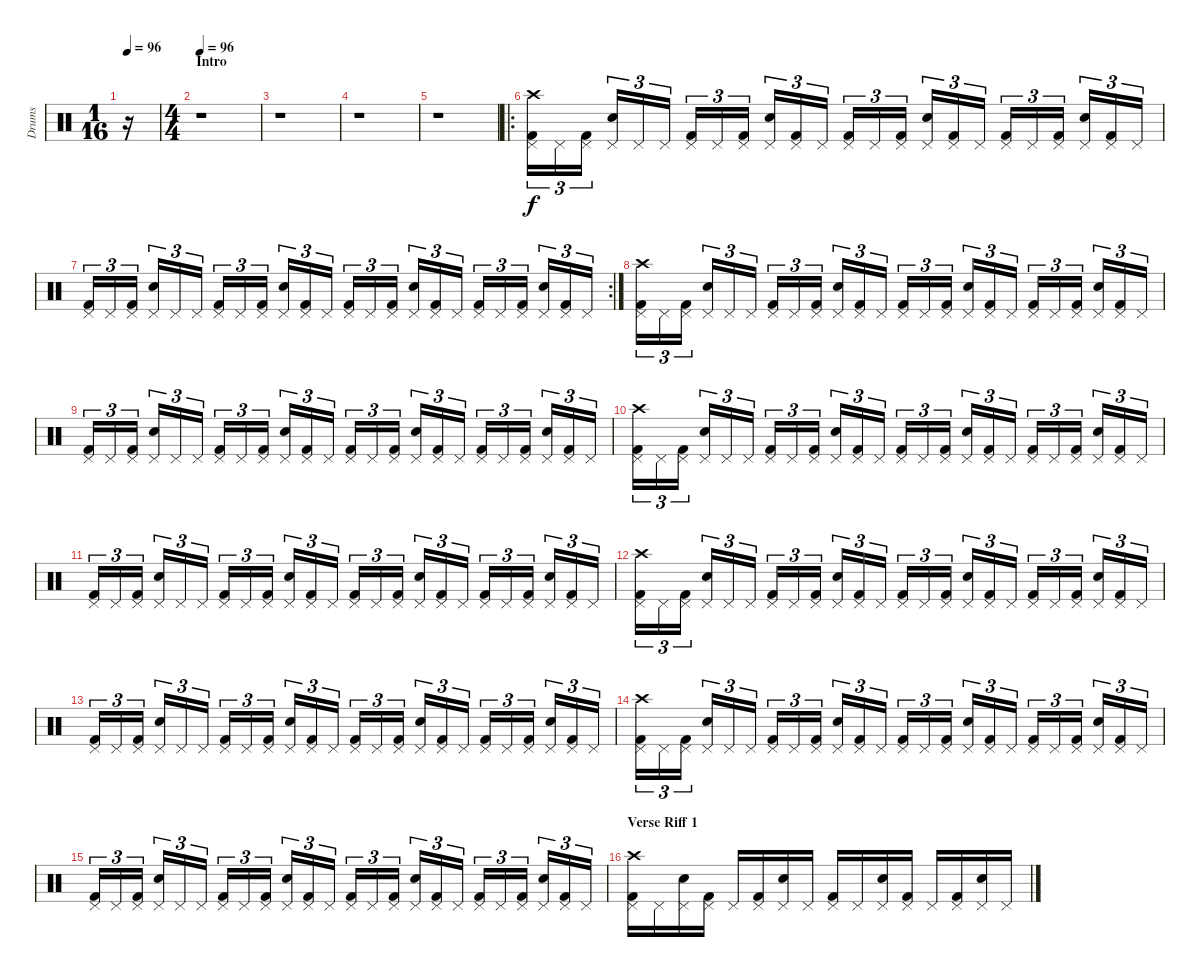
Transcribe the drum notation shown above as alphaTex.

\track ("Drums" "Drums") {instrument percussion}
\staff {score}
\articulation defaults
\ts (1 16)
\tempo 96
\clef neutral
\ks c
r.16{dy f} |
\ts (4 4)
\section ("" "Intro")
\tempo 96
r.1 |
r.1 |
r.1 |
r.1 |
\ro
("Kick (hit) 2" "Pedal Hi-Hat (hit)" "Crash high (hit)").16{tu (3 2)} "Pedal Hi-Hat (hit)".16{tu (3 2)} ("Kick (hit) 2" "Pedal Hi-Hat (hit)").16{tu (3 2)} ("Snare (hit) 2" "Pedal Hi-Hat (hit)").16{tu (3 2)} "Pedal Hi-Hat (hit)".16{tu (3 2)} "Pedal Hi-Hat (hit)".16{tu (3 2)} ("Kick (hit) 2" "Pedal Hi-Hat (hit)").16{tu (3 2)} "Pedal Hi-Hat (hit)".16{tu (3 2)} ("Kick (hit) 2" "Pedal Hi-Hat (hit)").16{tu (3 2)} ("Snare (hit) 2" "Pedal Hi-Hat (hit)").16{tu (3 2)} ("Kick (hit) 2" "Pedal Hi-Hat (hit)").16{tu (3 2)} "Pedal Hi-Hat (hit)".16{tu (3 2)} ("Kick (hit) 2" "Pedal Hi-Hat (hit)").16{tu (3 2)} "Pedal Hi-Hat (hit)".16{tu (3 2)} ("Kick (hit) 2" "Pedal Hi-Hat (hit)").16{tu (3 2)} ("Snare (hit) 2" "Pedal Hi-Hat (hit)").16{tu (3 2)} ("Kick (hit) 2" "Pedal Hi-Hat (hit)").16{tu (3 2)} "Pedal Hi-Hat (hit)".16{tu (3 2)} ("Kick (hit) 2" "Pedal Hi-Hat (hit)").16{tu (3 2)} "Pedal Hi-Hat (hit)".16{tu (3 2)} ("Kick (hit) 2" "Pedal Hi-Hat (hit)").16{tu (3 2)} ("Snare (hit) 2" "Pedal Hi-Hat (hit)").16{tu (3 2)} ("Kick (hit) 2" "Pedal Hi-Hat (hit)").16{tu (3 2)} "Pedal Hi-Hat (hit)".16{tu (3 2)} |
\rc 2
("Kick (hit) 2" "Pedal Hi-Hat (hit)").16{tu (3 2)} "Pedal Hi-Hat (hit)".16{tu (3 2)} ("Kick (hit) 2" "Pedal Hi-Hat (hit)").16{tu (3 2)} ("Snare (hit) 2" "Pedal Hi-Hat (hit)").16{tu (3 2)} "Pedal Hi-Hat (hit)".16{tu (3 2)} "Pedal Hi-Hat (hit)".16{tu (3 2)} ("Kick (hit) 2" "Pedal Hi-Hat (hit)").16{tu (3 2)} "Pedal Hi-Hat (hit)".16{tu (3 2)} ("Kick (hit) 2" "Pedal Hi-Hat (hit)").16{tu (3 2)} ("Snare (hit) 2" "Pedal Hi-Hat (hit)").16{tu (3 2)} ("Kick (hit) 2" "Pedal Hi-Hat (hit)").16{tu (3 2)} "Pedal Hi-Hat (hit)".16{tu (3 2)} ("Kick (hit) 2" "Pedal Hi-Hat (hit)").16{tu (3 2)} "Pedal Hi-Hat (hit)".16{tu (3 2)} ("Kick (hit) 2" "Pedal Hi-Hat (hit)").16{tu (3 2)} ("Snare (hit) 2" "Pedal Hi-Hat (hit)").16{tu (3 2)} ("Kick (hit) 2" "Pedal Hi-Hat (hit)").16{tu (3 2)} "Pedal Hi-Hat (hit)".16{tu (3 2)} ("Kick (hit) 2" "Pedal Hi-Hat (hit)").16{tu (3 2)} "Pedal Hi-Hat (hit)".16{tu (3 2)} ("Kick (hit) 2" "Pedal Hi-Hat (hit)").16{tu (3 2)} ("Snare (hit) 2" "Pedal Hi-Hat (hit)").16{tu (3 2)} ("Kick (hit) 2" "Pedal Hi-Hat (hit)").16{tu (3 2)} "Pedal Hi-Hat (hit)".16{tu (3 2)} |
("Kick (hit) 2" "Pedal Hi-Hat (hit)" "Crash high (hit)").16{tu (3 2)} "Pedal Hi-Hat (hit)".16{tu (3 2)} ("Kick (hit) 2" "Pedal Hi-Hat (hit)").16{tu (3 2)} ("Snare (hit) 2" "Pedal Hi-Hat (hit)").16{tu (3 2)} "Pedal Hi-Hat (hit)".16{tu (3 2)} "Pedal Hi-Hat (hit)".16{tu (3 2)} ("Kick (hit) 2" "Pedal Hi-Hat (hit)").16{tu (3 2)} "Pedal Hi-Hat (hit)".16{tu (3 2)} ("Kick (hit) 2" "Pedal Hi-Hat (hit)").16{tu (3 2)} ("Snare (hit) 2" "Pedal Hi-Hat (hit)").16{tu (3 2)} ("Kick (hit) 2" "Pedal Hi-Hat (hit)").16{tu (3 2)} "Pedal Hi-Hat (hit)".16{tu (3 2)} ("Kick (hit) 2" "Pedal Hi-Hat (hit)").16{tu (3 2)} "Pedal Hi-Hat (hit)".16{tu (3 2)} ("Kick (hit) 2" "Pedal Hi-Hat (hit)").16{tu (3 2)} ("Snare (hit) 2" "Pedal Hi-Hat (hit)").16{tu (3 2)} ("Kick (hit) 2" "Pedal Hi-Hat (hit)").16{tu (3 2)} "Pedal Hi-Hat (hit)".16{tu (3 2)} ("Kick (hit) 2" "Pedal Hi-Hat (hit)").16{tu (3 2)} "Pedal Hi-Hat (hit)".16{tu (3 2)} ("Kick (hit) 2" "Pedal Hi-Hat (hit)").16{tu (3 2)} ("Snare (hit) 2" "Pedal Hi-Hat (hit)").16{tu (3 2)} ("Kick (hit) 2" "Pedal Hi-Hat (hit)").16{tu (3 2)} "Pedal Hi-Hat (hit)".16{tu (3 2)} |
("Kick (hit) 2" "Pedal Hi-Hat (hit)").16{tu (3 2)} "Pedal Hi-Hat (hit)".16{tu (3 2)} ("Kick (hit) 2" "Pedal Hi-Hat (hit)").16{tu (3 2)} ("Snare (hit) 2" "Pedal Hi-Hat (hit)").16{tu (3 2)} "Pedal Hi-Hat (hit)".16{tu (3 2)} "Pedal Hi-Hat (hit)".16{tu (3 2)} ("Kick (hit) 2" "Pedal Hi-Hat (hit)").16{tu (3 2)} "Pedal Hi-Hat (hit)".16{tu (3 2)} ("Kick (hit) 2" "Pedal Hi-Hat (hit)").16{tu (3 2)} ("Snare (hit) 2" "Pedal Hi-Hat (hit)").16{tu (3 2)} ("Kick (hit) 2" "Pedal Hi-Hat (hit)").16{tu (3 2)} "Pedal Hi-Hat (hit)".16{tu (3 2)} ("Kick (hit) 2" "Pedal Hi-Hat (hit)").16{tu (3 2)} "Pedal Hi-Hat (hit)".16{tu (3 2)} ("Kick (hit) 2" "Pedal Hi-Hat (hit)").16{tu (3 2)} ("Snare (hit) 2" "Pedal Hi-Hat (hit)").16{tu (3 2)} ("Kick (hit) 2" "Pedal Hi-Hat (hit)").16{tu (3 2)} "Pedal Hi-Hat (hit)".16{tu (3 2)} ("Kick (hit) 2" "Pedal Hi-Hat (hit)").16{tu (3 2)} "Pedal Hi-Hat (hit)".16{tu (3 2)} ("Kick (hit) 2" "Pedal Hi-Hat (hit)").16{tu (3 2)} ("Snare (hit) 2" "Pedal Hi-Hat (hit)").16{tu (3 2)} ("Kick (hit) 2" "Pedal Hi-Hat (hit)").16{tu (3 2)} "Pedal Hi-Hat (hit)".16{tu (3 2)} |
("Kick (hit) 2" "Pedal Hi-Hat (hit)" "Crash high (hit)").16{tu (3 2)} "Pedal Hi-Hat (hit)".16{tu (3 2)} ("Kick (hit) 2" "Pedal Hi-Hat (hit)").16{tu (3 2)} ("Snare (hit) 2" "Pedal Hi-Hat (hit)").16{tu (3 2)} "Pedal Hi-Hat (hit)".16{tu (3 2)} "Pedal Hi-Hat (hit)".16{tu (3 2)} ("Kick (hit) 2" "Pedal Hi-Hat (hit)").16{tu (3 2)} "Pedal Hi-Hat (hit)".16{tu (3 2)} ("Kick (hit) 2" "Pedal Hi-Hat (hit)").16{tu (3 2)} ("Snare (hit) 2" "Pedal Hi-Hat (hit)").16{tu (3 2)} ("Kick (hit) 2" "Pedal Hi-Hat (hit)").16{tu (3 2)} "Pedal Hi-Hat (hit)".16{tu (3 2)} ("Kick (hit) 2" "Pedal Hi-Hat (hit)").16{tu (3 2)} "Pedal Hi-Hat (hit)".16{tu (3 2)} ("Kick (hit) 2" "Pedal Hi-Hat (hit)").16{tu (3 2)} ("Snare (hit) 2" "Pedal Hi-Hat (hit)").16{tu (3 2)} ("Kick (hit) 2" "Pedal Hi-Hat (hit)").16{tu (3 2)} "Pedal Hi-Hat (hit)".16{tu (3 2)} ("Kick (hit) 2" "Pedal Hi-Hat (hit)").16{tu (3 2)} "Pedal Hi-Hat (hit)".16{tu (3 2)} ("Kick (hit) 2" "Pedal Hi-Hat (hit)").16{tu (3 2)} ("Snare (hit) 2" "Pedal Hi-Hat (hit)").16{tu (3 2)} ("Kick (hit) 2" "Pedal Hi-Hat (hit)").16{tu (3 2)} "Pedal Hi-Hat (hit)".16{tu (3 2)} |
("Kick (hit) 2" "Pedal Hi-Hat (hit)").16{tu (3 2)} "Pedal Hi-Hat (hit)".16{tu (3 2)} ("Kick (hit) 2" "Pedal Hi-Hat (hit)").16{tu (3 2)} ("Snare (hit) 2" "Pedal Hi-Hat (hit)").16{tu (3 2)} "Pedal Hi-Hat (hit)".16{tu (3 2)} "Pedal Hi-Hat (hit)".16{tu (3 2)} ("Kick (hit) 2" "Pedal Hi-Hat (hit)").16{tu (3 2)} "Pedal Hi-Hat (hit)".16{tu (3 2)} ("Kick (hit) 2" "Pedal Hi-Hat (hit)").16{tu (3 2)} ("Snare (hit) 2" "Pedal Hi-Hat (hit)").16{tu (3 2)} ("Kick (hit) 2" "Pedal Hi-Hat (hit)").16{tu (3 2)} "Pedal Hi-Hat (hit)".16{tu (3 2)} ("Kick (hit) 2" "Pedal Hi-Hat (hit)").16{tu (3 2)} "Pedal Hi-Hat (hit)".16{tu (3 2)} ("Kick (hit) 2" "Pedal Hi-Hat (hit)").16{tu (3 2)} ("Snare (hit) 2" "Pedal Hi-Hat (hit)").16{tu (3 2)} ("Kick (hit) 2" "Pedal Hi-Hat (hit)").16{tu (3 2)} "Pedal Hi-Hat (hit)".16{tu (3 2)} ("Kick (hit) 2" "Pedal Hi-Hat (hit)").16{tu (3 2)} "Pedal Hi-Hat (hit)".16{tu (3 2)} ("Kick (hit) 2" "Pedal Hi-Hat (hit)").16{tu (3 2)} ("Snare (hit) 2" "Pedal Hi-Hat (hit)").16{tu (3 2)} ("Kick (hit) 2" "Pedal Hi-Hat (hit)").16{tu (3 2)} "Pedal Hi-Hat (hit)".16{tu (3 2)} |
("Kick (hit) 2" "Pedal Hi-Hat (hit)" "Crash high (hit)").16{tu (3 2)} "Pedal Hi-Hat (hit)".16{tu (3 2)} ("Kick (hit) 2" "Pedal Hi-Hat (hit)").16{tu (3 2)} ("Snare (hit) 2" "Pedal Hi-Hat (hit)").16{tu (3 2)} "Pedal Hi-Hat (hit)".16{tu (3 2)} "Pedal Hi-Hat (hit)".16{tu (3 2)} ("Kick (hit) 2" "Pedal Hi-Hat (hit)").16{tu (3 2)} "Pedal Hi-Hat (hit)".16{tu (3 2)} ("Kick (hit) 2" "Pedal Hi-Hat (hit)").16{tu (3 2)} ("Snare (hit) 2" "Pedal Hi-Hat (hit)").16{tu (3 2)} ("Kick (hit) 2" "Pedal Hi-Hat (hit)").16{tu (3 2)} "Pedal Hi-Hat (hit)".16{tu (3 2)} ("Kick (hit) 2" "Pedal Hi-Hat (hit)").16{tu (3 2)} "Pedal Hi-Hat (hit)".16{tu (3 2)} ("Kick (hit) 2" "Pedal Hi-Hat (hit)").16{tu (3 2)} ("Snare (hit) 2" "Pedal Hi-Hat (hit)").16{tu (3 2)} ("Kick (hit) 2" "Pedal Hi-Hat (hit)").16{tu (3 2)} "Pedal Hi-Hat (hit)".16{tu (3 2)} ("Kick (hit) 2" "Pedal Hi-Hat (hit)").16{tu (3 2)} "Pedal Hi-Hat (hit)".16{tu (3 2)} ("Kick (hit) 2" "Pedal Hi-Hat (hit)").16{tu (3 2)} ("Snare (hit) 2" "Pedal Hi-Hat (hit)").16{tu (3 2)} ("Kick (hit) 2" "Pedal Hi-Hat (hit)").16{tu (3 2)} "Pedal Hi-Hat (hit)".16{tu (3 2)} |
("Kick (hit) 2" "Pedal Hi-Hat (hit)").16{tu (3 2)} "Pedal Hi-Hat (hit)".16{tu (3 2)} ("Kick (hit) 2" "Pedal Hi-Hat (hit)").16{tu (3 2)} ("Snare (hit) 2" "Pedal Hi-Hat (hit)").16{tu (3 2)} "Pedal Hi-Hat (hit)".16{tu (3 2)} "Pedal Hi-Hat (hit)".16{tu (3 2)} ("Kick (hit) 2" "Pedal Hi-Hat (hit)").16{tu (3 2)} "Pedal Hi-Hat (hit)".16{tu (3 2)} ("Kick (hit) 2" "Pedal Hi-Hat (hit)").16{tu (3 2)} ("Snare (hit) 2" "Pedal Hi-Hat (hit)").16{tu (3 2)} ("Kick (hit) 2" "Pedal Hi-Hat (hit)").16{tu (3 2)} "Pedal Hi-Hat (hit)".16{tu (3 2)} ("Kick (hit) 2" "Pedal Hi-Hat (hit)").16{tu (3 2)} "Pedal Hi-Hat (hit)".16{tu (3 2)} ("Kick (hit) 2" "Pedal Hi-Hat (hit)").16{tu (3 2)} ("Snare (hit) 2" "Pedal Hi-Hat (hit)").16{tu (3 2)} ("Kick (hit) 2" "Pedal Hi-Hat (hit)").16{tu (3 2)} "Pedal Hi-Hat (hit)".16{tu (3 2)} ("Kick (hit) 2" "Pedal Hi-Hat (hit)").16{tu (3 2)} "Pedal Hi-Hat (hit)".16{tu (3 2)} ("Kick (hit) 2" "Pedal Hi-Hat (hit)").16{tu (3 2)} ("Snare (hit) 2" "Pedal Hi-Hat (hit)").16{tu (3 2)} ("Kick (hit) 2" "Pedal Hi-Hat (hit)").16{tu (3 2)} "Pedal Hi-Hat (hit)".16{tu (3 2)} |
("Kick (hit) 2" "Pedal Hi-Hat (hit)" "Crash high (hit)").16{tu (3 2)} "Pedal Hi-Hat (hit)".16{tu (3 2)} ("Kick (hit) 2" "Pedal Hi-Hat (hit)").16{tu (3 2)} ("Snare (hit) 2" "Pedal Hi-Hat (hit)").16{tu (3 2)} "Pedal Hi-Hat (hit)".16{tu (3 2)} "Pedal Hi-Hat (hit)".16{tu (3 2)} ("Kick (hit) 2" "Pedal Hi-Hat (hit)").16{tu (3 2)} "Pedal Hi-Hat (hit)".16{tu (3 2)} ("Kick (hit) 2" "Pedal Hi-Hat (hit)").16{tu (3 2)} ("Snare (hit) 2" "Pedal Hi-Hat (hit)").16{tu (3 2)} ("Kick (hit) 2" "Pedal Hi-Hat (hit)").16{tu (3 2)} "Pedal Hi-Hat (hit)".16{tu (3 2)} ("Kick (hit) 2" "Pedal Hi-Hat (hit)").16{tu (3 2)} "Pedal Hi-Hat (hit)".16{tu (3 2)} ("Kick (hit) 2" "Pedal Hi-Hat (hit)").16{tu (3 2)} ("Snare (hit) 2" "Pedal Hi-Hat (hit)").16{tu (3 2)} ("Kick (hit) 2" "Pedal Hi-Hat (hit)").16{tu (3 2)} "Pedal Hi-Hat (hit)".16{tu (3 2)} ("Kick (hit) 2" "Pedal Hi-Hat (hit)").16{tu (3 2)} "Pedal Hi-Hat (hit)".16{tu (3 2)} ("Kick (hit) 2" "Pedal Hi-Hat (hit)").16{tu (3 2)} ("Snare (hit) 2" "Pedal Hi-Hat (hit)").16{tu (3 2)} ("Kick (hit) 2" "Pedal Hi-Hat (hit)").16{tu (3 2)} "Pedal Hi-Hat (hit)".16{tu (3 2)} |
("Kick (hit) 2" "Pedal Hi-Hat (hit)").16{tu (3 2)} "Pedal Hi-Hat (hit)".16{tu (3 2)} ("Kick (hit) 2" "Pedal Hi-Hat (hit)").16{tu (3 2)} ("Snare (hit) 2" "Pedal Hi-Hat (hit)").16{tu (3 2)} "Pedal Hi-Hat (hit)".16{tu (3 2)} "Pedal Hi-Hat (hit)".16{tu (3 2)} ("Kick (hit) 2" "Pedal Hi-Hat (hit)").16{tu (3 2)} "Pedal Hi-Hat (hit)".16{tu (3 2)} ("Kick (hit) 2" "Pedal Hi-Hat (hit)").16{tu (3 2)} ("Snare (hit) 2" "Pedal Hi-Hat (hit)").16{tu (3 2)} ("Kick (hit) 2" "Pedal Hi-Hat (hit)").16{tu (3 2)} "Pedal Hi-Hat (hit)".16{tu (3 2)} ("Kick (hit) 2" "Pedal Hi-Hat (hit)").16{tu (3 2)} "Pedal Hi-Hat (hit)".16{tu (3 2)} ("Kick (hit) 2" "Pedal Hi-Hat (hit)").16{tu (3 2)} ("Snare (hit) 2" "Pedal Hi-Hat (hit)").16{tu (3 2)} ("Kick (hit) 2" "Pedal Hi-Hat (hit)").16{tu (3 2)} "Pedal Hi-Hat (hit)".16{tu (3 2)} ("Kick (hit) 2" "Pedal Hi-Hat (hit)").16{tu (3 2)} "Pedal Hi-Hat (hit)".16{tu (3 2)} ("Kick (hit) 2" "Pedal Hi-Hat (hit)").16{tu (3 2)} ("Snare (hit) 2" "Pedal Hi-Hat (hit)").16{tu (3 2)} ("Kick (hit) 2" "Pedal Hi-Hat (hit)").16{tu (3 2)} "Pedal Hi-Hat (hit)".16{tu (3 2)} |
\section ("" "Verse Riff 1")
("Kick (hit) 2" "Pedal Hi-Hat (hit)" "Crash high (hit)").16 "Pedal Hi-Hat (hit)".16 ("Snare (hit) 2" "Pedal Hi-Hat (hit)").16 ("Kick (hit) 2" "Pedal Hi-Hat (hit)").16 "Pedal Hi-Hat (hit)".16 ("Kick (hit) 2" "Pedal Hi-Hat (hit)").16 ("Snare (hit) 2" "Pedal Hi-Hat (hit)").16 "Pedal Hi-Hat (hit)".16 ("Kick (hit) 2" "Pedal Hi-Hat (hit)").16 "Pedal Hi-Hat (hit)".16 ("Snare (hit) 2" "Pedal Hi-Hat (hit)").16 ("Kick (hit) 2" "Pedal Hi-Hat (hit)").16 "Pedal Hi-Hat (hit)".16 ("Kick (hit) 2" "Pedal Hi-Hat (hit)").16 ("Snare (hit) 2" "Pedal Hi-Hat (hit)").16 "Pedal Hi-Hat (hit)".16
